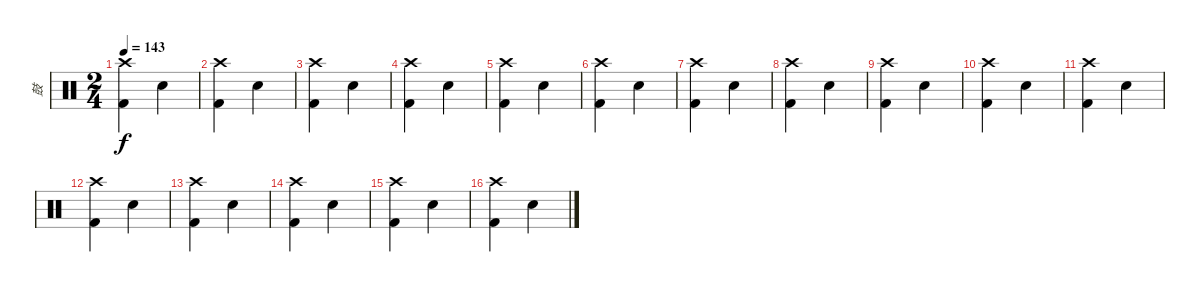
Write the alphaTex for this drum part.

\track ("鼓" "鼓") {instrument percussion}
\staff {score}
\articulation defaults
\ts (2 4)
\tempo 143
\clef neutral
\ks c
("Kick (hit) 2" "Crash high (hit)").4{dy f} "Hand Clap (hit)".4 |
("Kick (hit) 2" "Crash high (hit)").4 "Hand Clap (hit)".4 |
("Kick (hit) 2" "Crash high (hit)").4 "Hand Clap (hit)".4 |
("Kick (hit) 2" "Crash high (hit)").4 "Hand Clap (hit)".4 |
("Kick (hit) 2" "Crash high (hit)").4 "Hand Clap (hit)".4 |
("Kick (hit) 2" "Crash high (hit)").4 "Hand Clap (hit)".4 |
("Kick (hit) 2" "Crash high (hit)").4 "Hand Clap (hit)".4 |
("Kick (hit) 2" "Crash high (hit)").4 "Hand Clap (hit)".4 |
("Kick (hit) 2" "Crash high (hit)").4 "Hand Clap (hit)".4 |
("Kick (hit) 2" "Crash high (hit)").4 "Hand Clap (hit)".4 |
("Kick (hit) 2" "Crash high (hit)").4 "Hand Clap (hit)".4 |
("Kick (hit) 2" "Crash high (hit)").4 "Hand Clap (hit)".4 |
("Kick (hit) 2" "Crash high (hit)").4 "Hand Clap (hit)".4 |
("Kick (hit) 2" "Crash high (hit)").4 "Hand Clap (hit)".4 |
("Kick (hit) 2" "Crash high (hit)").4 "Hand Clap (hit)".4 |
("Kick (hit) 2" "Crash high (hit)").4 "Hand Clap (hit)".4
